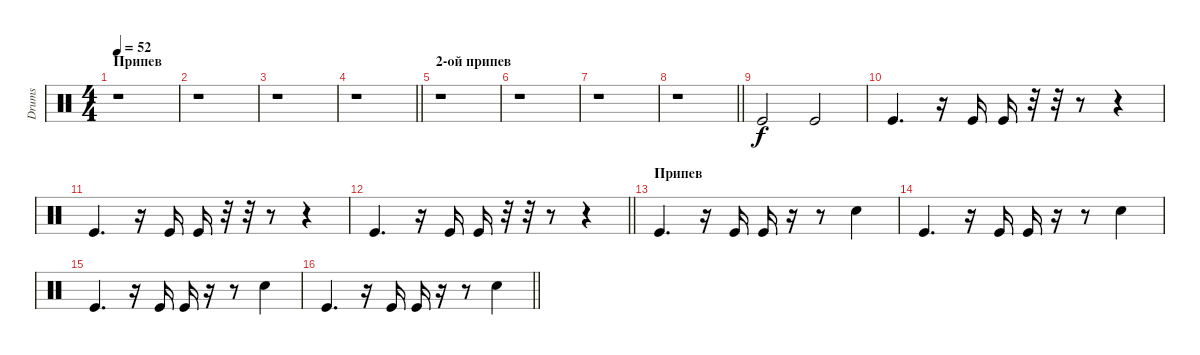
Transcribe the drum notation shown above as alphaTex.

\track ("Drums" "Drums") {instrument percussion}
\staff {score}
\articulation defaults
\ts (4 4)
\section ("" "Припев")
\tempo 52
\clef neutral
\ks c
r.1{dy f} |
r.1 |
r.1 |
\barLineRight lightlight
r.1 |
\section ("" "2-ой припев")
r.1 |
r.1 |
r.1 |
\barLineRight lightlight
r.1 |
"Kick (hit)".2 "Kick (hit)".2 |
"Kick (hit)".4{d} r.16 "Kick (hit)".16 "Kick (hit)".16 r.32 r.32 r.8 r.4 |
"Kick (hit)".4{d} r.16 "Kick (hit)".16 "Kick (hit)".16 r.32 r.32 r.8 r.4 |
\barLineRight lightlight "Kick (hit)".4{d}
r.16 "Kick (hit)".16 "Kick (hit)".16 r.32 r.32 r.8 r.4 |
\section ("" "Припев")
"Kick (hit)".4{d} r.16 "Kick (hit)".16 "Kick (hit)".16 r.16 r.8 "Snare (hit) 2".4 |
"Kick (hit)".4{d} r.16 "Kick (hit)".16 "Kick (hit)".16 r.16 r.8 "Snare (hit) 2".4 |
"Kick (hit)".4{d} r.16 "Kick (hit)".16 "Kick (hit)".16 r.16 r.8 "Snare (hit) 2".4 |
\barLineRight lightlight "Kick (hit)".4{d}
r.16 "Kick (hit)".16 "Kick (hit)".16 r.16 r.8 "Snare (hit) 2".4
